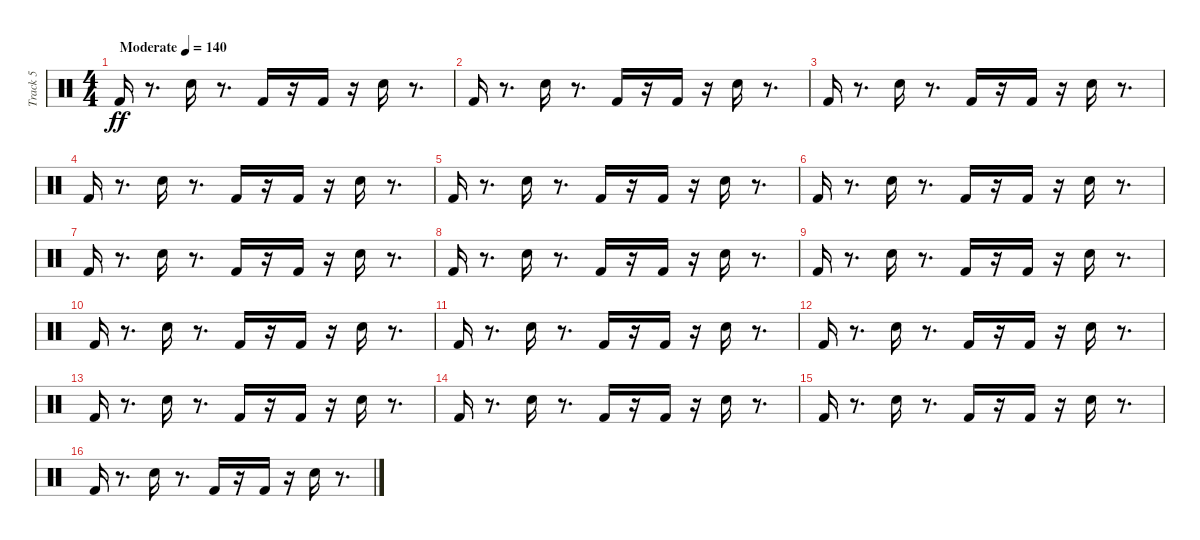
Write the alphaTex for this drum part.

\track ("Track 5" "Track 5") {instrument percussion}
\staff {score}
\articulation defaults
\ts (4 4)
\tempo (140 "Moderate")
\clef neutral
\ks c "Kick (hit) 2".16{dy ff}
r.8{d} "Snare (hit) 2".16 r.8{d} "Kick (hit) 2".16 r.16 "Kick (hit) 2".16 r.16 "Snare (hit) 2".16 r.8{d} |
"Kick (hit) 2".16 r.8{d} "Snare (hit) 2".16 r.8{d} "Kick (hit) 2".16 r.16 "Kick (hit) 2".16 r.16 "Snare (hit) 2".16 r.8{d} |
"Kick (hit) 2".16 r.8{d} "Snare (hit) 2".16 r.8{d} "Kick (hit) 2".16 r.16 "Kick (hit) 2".16 r.16 "Snare (hit) 2".16 r.8{d} |
"Kick (hit) 2".16 r.8{d} "Snare (hit) 2".16 r.8{d} "Kick (hit) 2".16 r.16 "Kick (hit) 2".16 r.16 "Snare (hit) 2".16 r.8{d} |
"Kick (hit) 2".16 r.8{d} "Snare (hit) 2".16 r.8{d} "Kick (hit) 2".16 r.16 "Kick (hit) 2".16 r.16 "Snare (hit) 2".16 r.8{d} |
"Kick (hit) 2".16 r.8{d} "Snare (hit) 2".16 r.8{d} "Kick (hit) 2".16 r.16 "Kick (hit) 2".16 r.16 "Snare (hit) 2".16 r.8{d} |
"Kick (hit) 2".16 r.8{d} "Snare (hit) 2".16 r.8{d} "Kick (hit) 2".16 r.16 "Kick (hit) 2".16 r.16 "Snare (hit) 2".16 r.8{d} |
"Kick (hit) 2".16 r.8{d} "Snare (hit) 2".16 r.8{d} "Kick (hit) 2".16 r.16 "Kick (hit) 2".16 r.16 "Snare (hit) 2".16 r.8{d} |
"Kick (hit) 2".16 r.8{d} "Snare (hit) 2".16 r.8{d} "Kick (hit) 2".16 r.16 "Kick (hit) 2".16 r.16 "Snare (hit) 2".16 r.8{d} |
"Kick (hit) 2".16 r.8{d} "Snare (hit) 2".16 r.8{d} "Kick (hit) 2".16 r.16 "Kick (hit) 2".16 r.16 "Snare (hit) 2".16 r.8{d} |
"Kick (hit) 2".16 r.8{d} "Snare (hit) 2".16 r.8{d} "Kick (hit) 2".16 r.16 "Kick (hit) 2".16 r.16 "Snare (hit) 2".16 r.8{d} |
"Kick (hit) 2".16 r.8{d} "Snare (hit) 2".16 r.8{d} "Kick (hit) 2".16 r.16 "Kick (hit) 2".16 r.16 "Snare (hit) 2".16 r.8{d} |
"Kick (hit) 2".16 r.8{d} "Snare (hit) 2".16 r.8{d} "Kick (hit) 2".16 r.16 "Kick (hit) 2".16 r.16 "Snare (hit) 2".16 r.8{d} |
"Kick (hit) 2".16 r.8{d} "Snare (hit) 2".16 r.8{d} "Kick (hit) 2".16 r.16 "Kick (hit) 2".16 r.16 "Snare (hit) 2".16 r.8{d} |
"Kick (hit) 2".16 r.8{d} "Snare (hit) 2".16 r.8{d} "Kick (hit) 2".16 r.16 "Kick (hit) 2".16 r.16 "Snare (hit) 2".16 r.8{d} |
"Kick (hit) 2".16 r.8{d} "Snare (hit) 2".16 r.8{d} "Kick (hit) 2".16 r.16 "Kick (hit) 2".16 r.16 "Snare (hit) 2".16 r.8{d}
